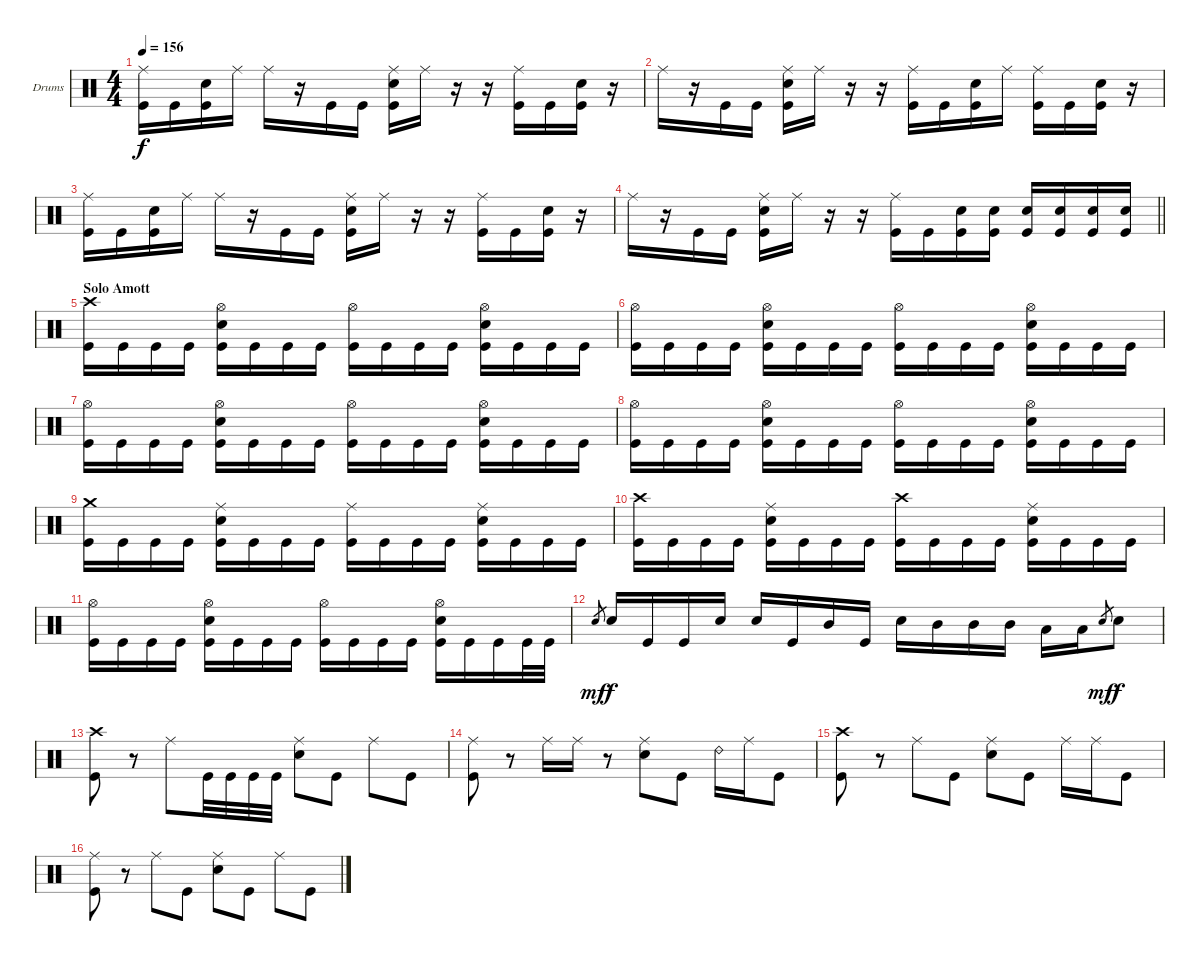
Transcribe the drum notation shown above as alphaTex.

\bracketExtendMode groupsimilarinstruments
\firstSystemTrackNameOrientation horizontal
\otherSystemsTrackNameOrientation horizontal
\track ("Drumkit" "Drums") {instrument percussion}
\staff {score}
\articulation defaults
\ts (4 4)
\tempo 156
\clef neutral
\ks c
("Ride (middle)" "Kick (hit)").16{dy f} "Kick (hit)".16 ("Snare (hit) 2" "Kick (hit)").16 "Ride (middle)".16 "Ride (middle)".16 r.16 "Kick (hit)".16 "Kick (hit)".16 ("Ride (middle)" "Snare (hit) 2" "Kick (hit)").16 "Ride (middle)".16 r.16 r.16 ("Ride (middle)" "Kick (hit)").16 "Kick (hit)".16 ("Snare (hit) 2" "Kick (hit)").16 r.16 |
"Ride (middle)".16 r.16 "Kick (hit)".16 "Kick (hit)".16 ("Ride (middle)" "Snare (hit) 2" "Kick (hit)").16 "Ride (middle)".16 r.16 r.16 ("Ride (middle)" "Kick (hit)").16 "Kick (hit)".16 ("Snare (hit) 2" "Kick (hit)").16 "Ride (middle)".16 ("Ride (middle)" "Kick (hit)").16 "Kick (hit)".16 ("Snare (hit) 2" "Kick (hit)").16 r.16 |
("Ride (middle)" "Kick (hit)").16 "Kick (hit)".16 ("Snare (hit) 2" "Kick (hit)").16 "Ride (middle)".16 "Ride (middle)".16 r.16 "Kick (hit)".16 "Kick (hit)".16 ("Ride (middle)" "Snare (hit) 2" "Kick (hit)").16 "Ride (middle)".16 r.16 r.16 ("Ride (middle)" "Kick (hit)").16 "Kick (hit)".16 ("Snare (hit) 2" "Kick (hit)").16 r.16 |
\barLineRight lightlight "Ride (middle)".16
r.16 "Kick (hit)".16 "Kick (hit)".16 ("Ride (middle)" "Snare (hit) 2" "Kick (hit)").16 "Ride (middle)".16 r.16 r.16 ("Ride (middle)" "Kick (hit)").16 "Kick (hit)".16 ("Snare (hit) 2" "Kick (hit)").16 ("Snare (hit) 2" "Kick (hit)").16 ("Snare (hit) 2" "Kick (hit)").16 ("Snare (hit) 2" "Kick (hit)").16 ("Snare (hit) 2" "Kick (hit)").16 ("Snare (hit) 2" "Kick (hit)").16 |
\section ("" "Solo Amott")
("Crash high (hit)" "Kick (hit)").16 "Kick (hit)".16 "Kick (hit)".16 "Kick (hit)".16 ("Hi-Hat (open)" "Snare (hit) 2" "Kick (hit)").16 "Kick (hit)".16 "Kick (hit)".16 "Kick (hit)".16 ("Hi-Hat (open)" "Kick (hit)").16 "Kick (hit)".16 "Kick (hit)".16 "Kick (hit)".16 ("Hi-Hat (open)" "Snare (hit) 2" "Kick (hit)").16 "Kick (hit)".16 "Kick (hit)".16 "Kick (hit)".16 |
("Hi-Hat (open)" "Kick (hit)").16 "Kick (hit)".16 "Kick (hit)".16 "Kick (hit)".16 ("Hi-Hat (open)" "Snare (hit) 2" "Kick (hit)").16 "Kick (hit)".16 "Kick (hit)".16 "Kick (hit)".16 ("Hi-Hat (open)" "Kick (hit)").16 "Kick (hit)".16 "Kick (hit)".16 "Kick (hit)".16 ("Hi-Hat (open)" "Snare (hit) 2" "Kick (hit)").16 "Kick (hit)".16 "Kick (hit)".16 "Kick (hit)".16 |
("Hi-Hat (open)" "Kick (hit)").16 "Kick (hit)".16 "Kick (hit)".16 "Kick (hit)".16 ("Hi-Hat (open)" "Snare (hit) 2" "Kick (hit)").16 "Kick (hit)".16 "Kick (hit)".16 "Kick (hit)".16 ("Hi-Hat (open)" "Kick (hit)").16 "Kick (hit)".16 "Kick (hit)".16 "Kick (hit)".16 ("Hi-Hat (open)" "Snare (hit) 2" "Kick (hit)").16 "Kick (hit)".16 "Kick (hit)".16 "Kick (hit)".16 |
("Hi-Hat (open)" "Kick (hit)").16 "Kick (hit)".16 "Kick (hit)".16 "Kick (hit)".16 ("Hi-Hat (open)" "Snare (hit) 2" "Kick (hit)").16 "Kick (hit)".16 "Kick (hit)".16 "Kick (hit)".16 ("Hi-Hat (open)" "Kick (hit)").16 "Kick (hit)".16 "Kick (hit)".16 "Kick (hit)".16 ("Hi-Hat (open)" "Snare (hit) 2" "Kick (hit)").16 "Kick (hit)".16 "Kick (hit)".16 "Kick (hit)".16 |
("Crash medium (hit)" "Kick (hit)").16 "Kick (hit)".16 "Kick (hit)".16 "Kick (hit)".16 ("Ride (middle)" "Snare (hit) 2" "Kick (hit)").16 "Kick (hit)".16 "Kick (hit)".16 "Kick (hit)".16 ("Ride (middle)" "Kick (hit)").16 "Kick (hit)".16 "Kick (hit)".16 "Kick (hit)".16 ("Ride (middle)" "Snare (hit) 2" "Kick (hit)").16 "Kick (hit)".16 "Kick (hit)".16 "Kick (hit)".16 |
("Crash high (hit)" "Kick (hit)").16 "Kick (hit)".16 "Kick (hit)".16 "Kick (hit)".16 ("Ride (middle)" "Snare (hit) 2" "Kick (hit)").16 "Kick (hit)".16 "Kick (hit)".16 "Kick (hit)".16 ("Crash high (hit)" "Kick (hit)").16 "Kick (hit)".16 "Kick (hit)".16 "Kick (hit)".16 ("Ride (middle)" "Snare (hit) 2" "Kick (hit)").16 "Kick (hit)".16 "Kick (hit)".16 "Kick (hit)".16 |
("Hi-Hat (open)" "Kick (hit)").16 "Kick (hit)".16 "Kick (hit)".16 "Kick (hit)".16 ("Hi-Hat (open)" "Snare (hit) 2" "Kick (hit)").16 "Kick (hit)".16 "Kick (hit)".16 "Kick (hit)".16 ("Hi-Hat (open)" "Kick (hit)").16 "Kick (hit)".16 "Kick (hit)".16 "Kick (hit)".16 ("Hi-Hat (open)" "Snare (hit) 2" "Kick (hit)").16 "Kick (hit)".16 "Kick (hit)".16 "Kick (hit)".32 "Kick (hit)".32 |
"Snare (hit) 2".8{gr dy mf} "Snare (hit) 2".16{dy f} "Kick (hit)".16 "Kick (hit)".16 "Snare (hit) 2".16 "Snare (hit) 2".16 "Kick (hit)".16 "Mid Tom (hit)".16 "Kick (hit)".16 "Snare (hit) 2".16 "Mid Tom (hit)".16 "Mid Tom (hit)".16 "Mid Tom (hit)".16 "Low Tom (hit)".16 "Low Tom (hit)".16 "Snare (hit) 2".8{gr dy mf} "Snare (hit) 2".8{dy f} |
("Crash high (hit)" "Kick (hit)").8 r.8 "Ride (middle)".8 "Kick (hit)".32 "Kick (hit)".32 "Kick (hit)".32 "Kick (hit)".32 ("Ride (middle)" "Snare (hit) 2").8 "Kick (hit)".8 "Ride (middle)".8 "Kick (hit)".8 |
("Ride (middle)" "Kick (hit)").8 r.8 "Ride (middle)".16 "Ride (middle)".16 r.8 ("Ride (middle)" "Snare (hit) 2").8 "Kick (hit)".8 "Ride (bell) 2".16 "Ride (middle)".16 "Kick (hit)".8 |
("Crash high (hit)" "Kick (hit)").8 r.8 "Ride (middle)".8 "Kick (hit)".8 ("Ride (middle)" "Snare (hit) 2").8 "Kick (hit)".8 "Ride (middle)".16 "Ride (middle)".16 "Kick (hit)".8 |
("Ride (middle)" "Kick (hit)").8 r.8 "Ride (middle)".8 "Kick (hit)".8 ("Ride (middle)" "Snare (hit) 2").8 "Kick (hit)".8 "Ride (middle)".8 "Kick (hit)".8
